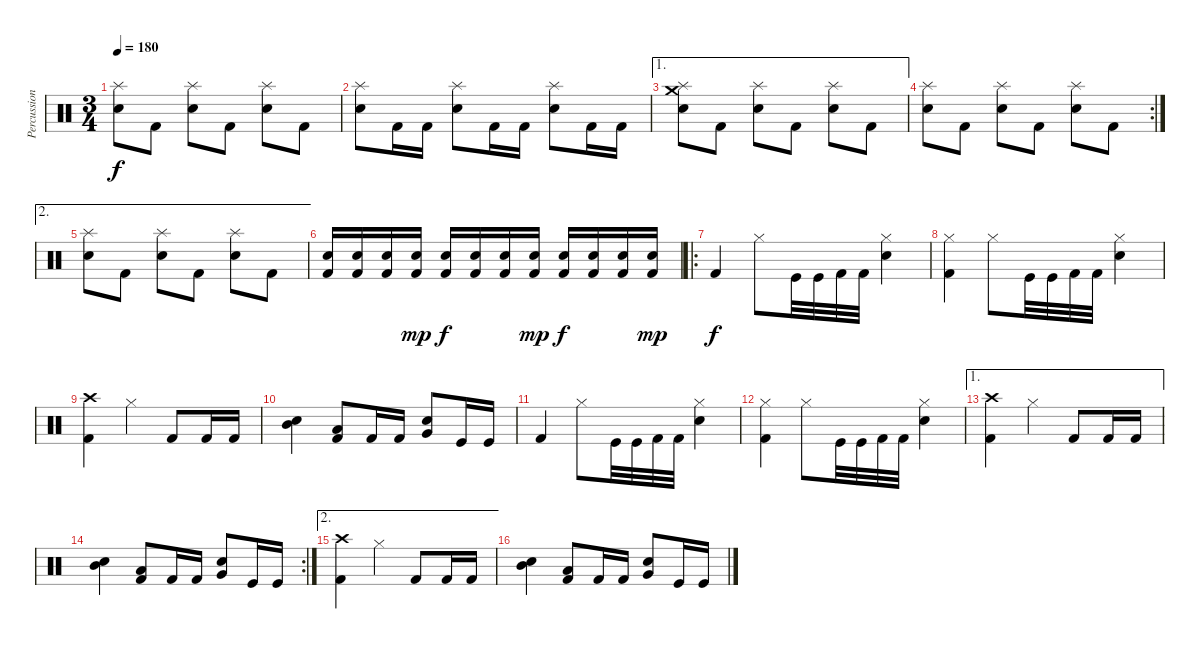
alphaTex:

\track ("Percussion" "Percussion") {instrument percussion}
\staff {score}
\articulation defaults
\ts (3 4)
\tempo 180
\clef neutral
\ks c
("Splash (hit)" "Snare (hit) 2").8{dy f} "Kick (hit) 2".8 ("Splash (hit)" "Snare (hit) 2").8 "Kick (hit) 2".8 ("Splash (hit)" "Snare (hit) 2").8 "Kick (hit) 2".8 |
("Splash (hit)" "Snare (hit) 2").8 "Kick (hit) 2".16 "Kick (hit) 2".16 ("Splash (hit)" "Snare (hit) 2").8 "Kick (hit) 2".16 "Kick (hit) 2".16 ("Splash (hit)" "Snare (hit) 2").8 "Kick (hit) 2".16 "Kick (hit) 2".16 |
\ae 1
("Crash medium (hit)" "Splash (hit)" "Snare (hit) 2").8 "Kick (hit) 2".8 ("Splash (hit)" "Snare (hit) 2").8 "Kick (hit) 2".8 ("Splash (hit)" "Snare (hit) 2").8 "Kick (hit) 2".8 |
\rc 2
("Splash (hit)" "Snare (hit) 2").8 "Kick (hit) 2".8 ("Splash (hit)" "Snare (hit) 2").8 "Kick (hit) 2".8 ("Splash (hit)" "Snare (hit) 2").8 "Kick (hit) 2".8 |
\ae 2
("Splash (hit)" "Snare (hit) 2").8 "Kick (hit) 2".8 ("Splash (hit)" "Snare (hit) 2").8 "Kick (hit) 2".8 ("Splash (hit)" "Snare (hit) 2").8 "Kick (hit) 2".8 |
("Snare (hit) 2" "Kick (hit) 2").16 ("Snare (hit) 2" "Kick (hit) 2").16 ("Snare (hit) 2" "Kick (hit) 2").16 ("Snare (hit) 2" "Kick (hit) 2").16{dy mp} ("Snare (hit) 2" "Kick (hit) 2").16{dy f} ("Snare (hit) 2" "Kick (hit) 2").16 ("Snare (hit) 2" "Kick (hit) 2").16 ("Snare (hit) 2" "Kick (hit) 2").16{dy mp} ("Snare (hit) 2" "Kick (hit) 2").16{dy f} ("Snare (hit) 2" "Kick (hit) 2").16 ("Snare (hit) 2" "Kick (hit) 2").16 ("Snare (hit) 2" "Kick (hit) 2").16{dy mp} |
\ro "Kick (hit) 2".4{dy f} "Hi-Hat (closed)".8 "Kick (hit)".32 "Kick (hit)".32 "Kick (hit) 2".32 "Kick (hit) 2".32
("Hi-Hat (closed)" "Snare (hit) 2").4 |
("Hi-Hat (closed)" "Kick (hit) 2").4 "Hi-Hat (closed)".8 "Kick (hit)".32 "Kick (hit)".32 "Kick (hit) 2".32 "Kick (hit) 2".32 ("Hi-Hat (closed)" "Snare (hit) 2").4 |
("Crash high (hit)" "Kick (hit) 2").4 "Hi-Hat (closed)".4 "Kick (hit) 2".8 "Kick (hit) 2".16 "Kick (hit) 2".16 |
("Mid Tom (hit)" "Snare (hit) 2").4 ("Low Tom (hit)" "Kick (hit) 2").8 "Kick (hit) 2".16 "Kick (hit) 2".16 ("Very Low Tom (hit)" "Snare (hit) 2").8 "Kick (hit)".16 "Kick (hit)".16 |
"Kick (hit) 2".4 "Hi-Hat (closed)".8 "Kick (hit)".32 "Kick (hit)".32 "Kick (hit) 2".32 "Kick (hit) 2".32 ("Hi-Hat (closed)" "Snare (hit) 2").4 |
("Hi-Hat (closed)" "Kick (hit) 2").4 "Hi-Hat (closed)".8 "Kick (hit)".32 "Kick (hit)".32 "Kick (hit) 2".32 "Kick (hit) 2".32 ("Hi-Hat (closed)" "Snare (hit) 2").4 |
\ae 1
("Crash high (hit)" "Kick (hit) 2").4 "Hi-Hat (closed)".4 "Kick (hit) 2".8 "Kick (hit) 2".16 "Kick (hit) 2".16 |
\rc 2
("Mid Tom (hit)" "Snare (hit) 2").4 ("Low Tom (hit)" "Kick (hit) 2").8 "Kick (hit) 2".16 "Kick (hit) 2".16 ("Very Low Tom (hit)" "Snare (hit) 2").8 "Kick (hit)".16 "Kick (hit)".16 |
\ae 2
("Crash high (hit)" "Kick (hit) 2").4 "Hi-Hat (closed)".4 "Kick (hit) 2".8 "Kick (hit) 2".16 "Kick (hit) 2".16 |
("Mid Tom (hit)" "Snare (hit) 2").4 ("Low Tom (hit)" "Kick (hit) 2").8 "Kick (hit) 2".16 "Kick (hit) 2".16 ("Very Low Tom (hit)" "Snare (hit) 2").8 "Kick (hit)".16 "Kick (hit)".16
